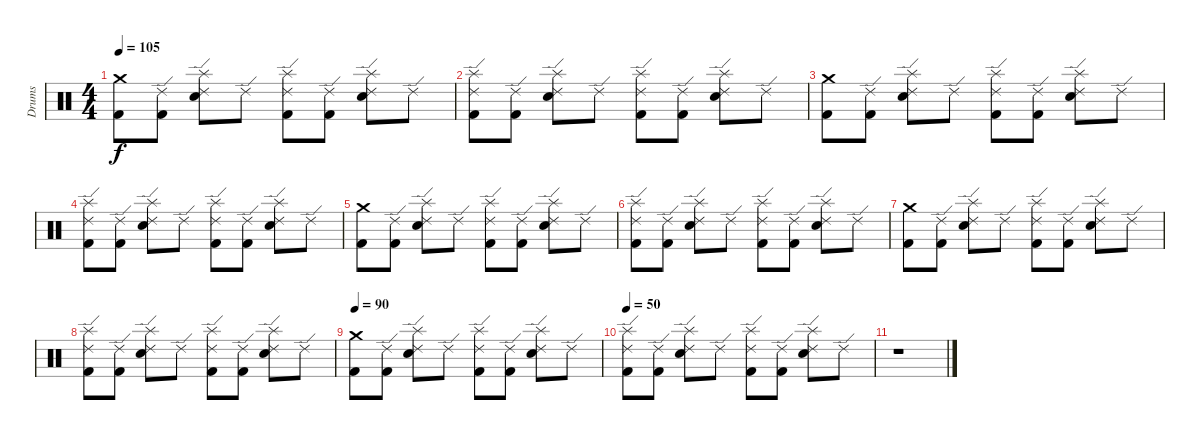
\track ("Drums" "Drums") {instrument percussion}
\staff {score}
\articulation defaults
\ts (4 4)
\tempo 105
\clef neutral
\ks c
("Crash medium (hit)" "Kick (hit) 2").8{dy f} ("Ride (edge) 2" "Kick (hit) 2").8 ("Ride (edge) 2" "Splash (hit)" "Electric Snare (hit)").8 "Ride (edge) 2".8 ("Ride (edge) 2" "Splash (hit)" "Kick (hit) 2").8 ("Ride (edge) 2" "Kick (hit) 2").8 ("Ride (edge) 2" "Splash (hit)" "Electric Snare (hit)").8 "Ride (edge) 2".8 |
("Ride (edge) 2" "Splash (hit)" "Kick (hit) 2").8 ("Ride (edge) 2" "Kick (hit) 2").8 ("Ride (edge) 2" "Splash (hit)" "Electric Snare (hit)").8 "Ride (edge) 2".8 ("Ride (edge) 2" "Splash (hit)" "Kick (hit) 2").8 ("Ride (edge) 2" "Kick (hit) 2").8 ("Ride (edge) 2" "Splash (hit)" "Electric Snare (hit)").8 "Ride (edge) 2".8 |
("Crash medium (hit)" "Kick (hit) 2").8 ("Ride (edge) 2" "Kick (hit) 2").8 ("Ride (edge) 2" "Splash (hit)" "Electric Snare (hit)").8 "Ride (edge) 2".8 ("Ride (edge) 2" "Splash (hit)" "Kick (hit) 2").8 ("Ride (edge) 2" "Kick (hit) 2").8 ("Ride (edge) 2" "Splash (hit)" "Electric Snare (hit)").8 "Ride (edge) 2".8 |
("Ride (edge) 2" "Splash (hit)" "Kick (hit) 2").8 ("Ride (edge) 2" "Kick (hit) 2").8 ("Ride (edge) 2" "Splash (hit)" "Electric Snare (hit)").8 "Ride (edge) 2".8 ("Ride (edge) 2" "Splash (hit)" "Kick (hit) 2").8 ("Ride (edge) 2" "Kick (hit) 2").8 ("Ride (edge) 2" "Splash (hit)" "Electric Snare (hit)").8 "Ride (edge) 2".8 |
("Crash medium (hit)" "Kick (hit) 2").8 ("Ride (edge) 2" "Kick (hit) 2").8 ("Ride (edge) 2" "Splash (hit)" "Electric Snare (hit)").8 "Ride (edge) 2".8 ("Ride (edge) 2" "Splash (hit)" "Kick (hit) 2").8 ("Ride (edge) 2" "Kick (hit) 2").8 ("Ride (edge) 2" "Splash (hit)" "Electric Snare (hit)").8 "Ride (edge) 2".8 |
("Ride (edge) 2" "Splash (hit)" "Kick (hit) 2").8 ("Ride (edge) 2" "Kick (hit) 2").8 ("Ride (edge) 2" "Splash (hit)" "Electric Snare (hit)").8 "Ride (edge) 2".8 ("Ride (edge) 2" "Splash (hit)" "Kick (hit) 2").8 ("Ride (edge) 2" "Kick (hit) 2").8 ("Ride (edge) 2" "Splash (hit)" "Electric Snare (hit)").8 "Ride (edge) 2".8 |
("Crash medium (hit)" "Kick (hit) 2").8 ("Ride (edge) 2" "Kick (hit) 2").8 ("Ride (edge) 2" "Splash (hit)" "Electric Snare (hit)").8 "Ride (edge) 2".8 ("Ride (edge) 2" "Splash (hit)" "Kick (hit) 2").8 ("Ride (edge) 2" "Kick (hit) 2").8 ("Ride (edge) 2" "Splash (hit)" "Electric Snare (hit)").8 "Ride (edge) 2".8 |
("Ride (edge) 2" "Splash (hit)" "Kick (hit) 2").8 ("Ride (edge) 2" "Kick (hit) 2").8 ("Ride (edge) 2" "Splash (hit)" "Electric Snare (hit)").8 "Ride (edge) 2".8 ("Ride (edge) 2" "Splash (hit)" "Kick (hit) 2").8 ("Ride (edge) 2" "Kick (hit) 2").8 ("Ride (edge) 2" "Splash (hit)" "Electric Snare (hit)").8 "Ride (edge) 2".8 |
\tempo 90
("Crash medium (hit)" "Kick (hit) 2").8 ("Ride (edge) 2" "Kick (hit) 2").8 ("Ride (edge) 2" "Splash (hit)" "Electric Snare (hit)").8 "Ride (edge) 2".8 ("Ride (edge) 2" "Splash (hit)" "Kick (hit) 2").8 ("Ride (edge) 2" "Kick (hit) 2").8 ("Ride (edge) 2" "Splash (hit)" "Electric Snare (hit)").8 "Ride (edge) 2".8 |
\tempo 50
("Ride (edge) 2" "Splash (hit)" "Kick (hit) 2").8 ("Ride (edge) 2" "Kick (hit) 2").8 ("Ride (edge) 2" "Splash (hit)" "Electric Snare (hit)").8 "Ride (edge) 2".8 ("Ride (edge) 2" "Splash (hit)" "Kick (hit) 2").8 ("Ride (edge) 2" "Kick (hit) 2").8 ("Ride (edge) 2" "Splash (hit)" "Electric Snare (hit)").8 "Ride (edge) 2".8 |
r.1
